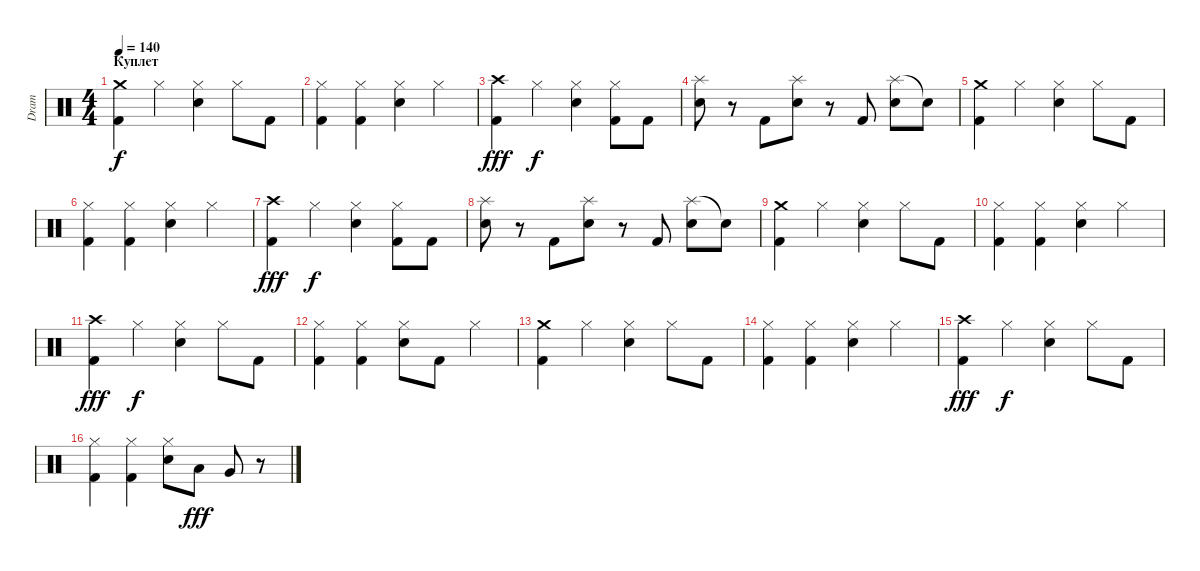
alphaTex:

\track ("Dram" "Dram") {instrument percussion}
\staff {score}
\articulation defaults
\ts (4 4)
\section ("" "Куплет")
\tempo 140
\clef neutral
\ks c
("Crash medium (hit)" "Kick (hit) 2").4{dy f} "Hi-Hat (closed)".4 ("Hi-Hat (closed)" "Snare (hit) 2").4 "Hi-Hat (closed)".8 "Kick (hit) 2".8 |
("Kick (hit) 2" "Hi-Hat (closed)").4 ("Kick (hit) 2" "Hi-Hat (closed)").4 ("Snare (hit) 2" "Hi-Hat (closed)").4 "Hi-Hat (closed)".4 |
("Crash high (hit)" "Kick (hit) 2").4{dy fff} "Hi-Hat (closed)".4{dy f} ("Hi-Hat (closed)" "Snare (hit) 2").4 ("Kick (hit) 2" "Hi-Hat (closed)").8 "Kick (hit) 2".8 |
("Splash (hit)" "Snare (hit) 2").8 r.8 "Kick (hit) 2".8 ("Splash (hit)" "Snare (hit) 2").8 r.8 "Kick (hit) 2".8 ("Splash (hit)" "Snare (hit) 2").8 "Snare (hit)"{t}.8 |
("Crash medium (hit)" "Kick (hit) 2").4 "Hi-Hat (closed)".4 ("Hi-Hat (closed)" "Snare (hit) 2").4 "Hi-Hat (closed)".8 "Kick (hit) 2".8 |
("Kick (hit) 2" "Hi-Hat (closed)").4 ("Kick (hit) 2" "Hi-Hat (closed)").4 ("Snare (hit) 2" "Hi-Hat (closed)").4 "Hi-Hat (closed)".4 |
("Crash high (hit)" "Kick (hit) 2").4{dy fff} "Hi-Hat (closed)".4{dy f} ("Hi-Hat (closed)" "Snare (hit) 2").4 ("Kick (hit) 2" "Hi-Hat (closed)").8 "Kick (hit) 2".8 |
("Splash (hit)" "Snare (hit) 2").8 r.8 "Kick (hit) 2".8 ("Splash (hit)" "Snare (hit) 2").8 r.8 "Kick (hit) 2".8 ("Splash (hit)" "Snare (hit) 2").8 "Snare (hit)"{t}.8 |
("Crash medium (hit)" "Kick (hit) 2").4 "Hi-Hat (closed)".4 ("Hi-Hat (closed)" "Snare (hit) 2").4 "Hi-Hat (closed)".8 "Kick (hit) 2".8 |
("Kick (hit) 2" "Hi-Hat (closed)").4 ("Hi-Hat (closed)" "Kick (hit) 2").4 ("Snare (hit) 2" "Hi-Hat (closed)").4 "Hi-Hat (closed)".4 |
("Crash high (hit)" "Kick (hit) 2").4{dy fff} "Hi-Hat (closed)".4{dy f} ("Hi-Hat (closed)" "Snare (hit) 2").4 "Hi-Hat (closed)".8 "Kick (hit) 2".8 |
("Hi-Hat (closed)" "Kick (hit) 2").4 ("Hi-Hat (closed)" "Kick (hit) 2").4 ("Hi-Hat (closed)" "Snare (hit) 2").8 "Kick (hit) 2".8 "Hi-Hat (closed)".4 |
("Kick (hit) 2" "Crash medium (hit)").4 "Hi-Hat (closed)".4 ("Snare (hit) 2" "Hi-Hat (closed)").4 "Hi-Hat (closed)".8 "Kick (hit) 2".8 |
("Hi-Hat (closed)" "Kick (hit) 2").4 ("Kick (hit) 2" "Hi-Hat (closed)").4 ("Hi-Hat (closed)" "Snare (hit) 2").4 "Hi-Hat (closed)".4 |
("Crash high (hit)" "Kick (hit) 2").4{dy fff} "Hi-Hat (closed)".4{dy f} ("Snare (hit) 2" "Hi-Hat (closed)").4 "Hi-Hat (closed)".8 "Kick (hit) 2".8 |
("Kick (hit) 2" "Hi-Hat (closed)").4 ("Kick (hit) 2" "Hi-Hat (closed)").4 ("Hi-Hat (closed)" "Snare (hit) 2").8 "Low Tom (hit)".8{dy fff} "Very Low Tom (hit)".8 r.8
